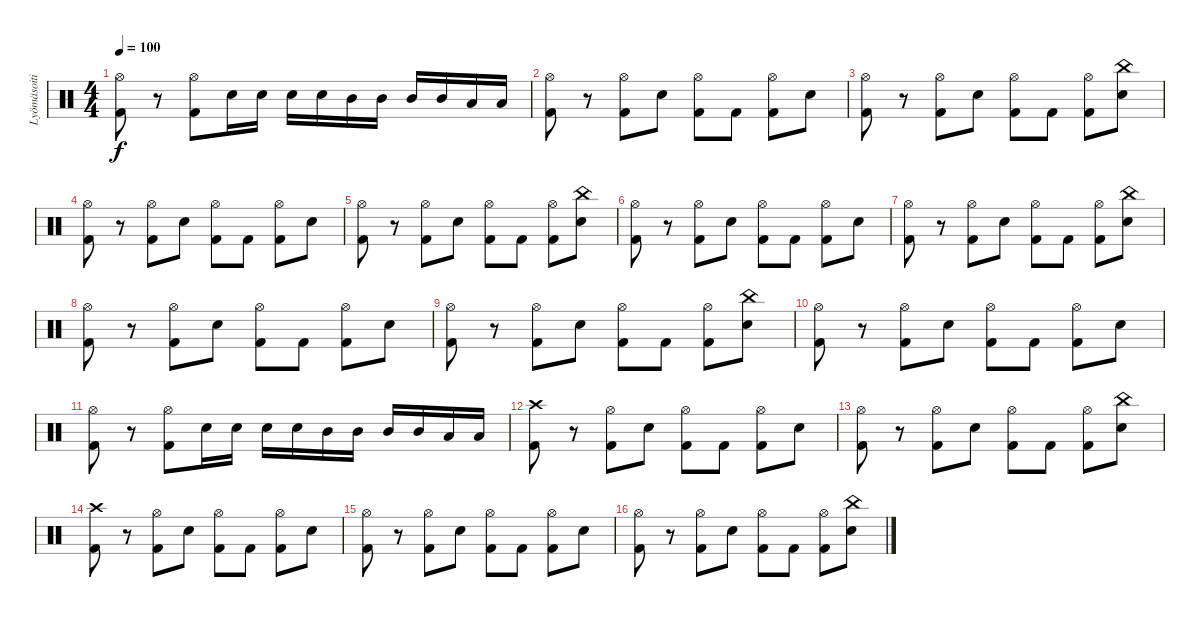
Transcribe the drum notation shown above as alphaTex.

\track ("Lyömäsoitin" "Lyömäsoiti") {instrument percussion}
\staff {score}
\articulation defaults
\ts (4 4)
\tempo 100
\clef neutral
\ks c
("Hi-Hat (open)" "Kick (hit) 2").8{dy f} r.8 ("Hi-Hat (open)" "Kick (hit) 2").8 "Snare (hit) 2".16 "Snare (hit) 2".16 "Snare (hit) 2".16 "Snare (hit) 2".16 "Mid Tom (hit)".16 "Mid Tom (hit)".16 "Mid Tom (hit)".16 "Mid Tom (hit)".16 "Low Tom (hit)".16 "Low Tom (hit)".16 |
("Hi-Hat (open)" "Kick (hit) 2").8 r.8 ("Hi-Hat (open)" "Kick (hit) 2").8 "Snare (hit) 2".8 ("Hi-Hat (open)" "Kick (hit) 2").8 "Kick (hit) 2".8 ("Hi-Hat (open)" "Kick (hit) 2").8 "Snare (hit) 2".8 |
("Hi-Hat (open)" "Kick (hit) 2").8 r.8 ("Hi-Hat (open)" "Kick (hit) 2").8 "Snare (hit) 2".8 ("Hi-Hat (open)" "Kick (hit) 2").8 "Kick (hit) 2".8 ("Hi-Hat (open)" "Kick (hit) 2").8 ("China (hit)" "Snare (hit) 2").8 |
("Hi-Hat (open)" "Kick (hit) 2").8 r.8 ("Hi-Hat (open)" "Kick (hit) 2").8 "Snare (hit) 2".8 ("Hi-Hat (open)" "Kick (hit) 2").8 "Kick (hit) 2".8 ("Hi-Hat (open)" "Kick (hit) 2").8 "Snare (hit) 2".8 |
("Hi-Hat (open)" "Kick (hit) 2").8 r.8 ("Hi-Hat (open)" "Kick (hit) 2").8 "Snare (hit) 2".8 ("Hi-Hat (open)" "Kick (hit) 2").8 "Kick (hit) 2".8 ("Hi-Hat (open)" "Kick (hit) 2").8 ("China (hit)" "Snare (hit) 2").8 |
("Hi-Hat (open)" "Kick (hit) 2").8 r.8 ("Hi-Hat (open)" "Kick (hit) 2").8 "Snare (hit) 2".8 ("Hi-Hat (open)" "Kick (hit) 2").8 "Kick (hit) 2".8 ("Hi-Hat (open)" "Kick (hit) 2").8 "Snare (hit) 2".8 |
("Hi-Hat (open)" "Kick (hit) 2").8 r.8 ("Hi-Hat (open)" "Kick (hit) 2").8 "Snare (hit) 2".8 ("Hi-Hat (open)" "Kick (hit) 2").8 "Kick (hit) 2".8 ("Hi-Hat (open)" "Kick (hit) 2").8 ("China (hit)" "Snare (hit) 2").8 |
("Hi-Hat (open)" "Kick (hit) 2").8 r.8 ("Hi-Hat (open)" "Kick (hit) 2").8 "Snare (hit) 2".8 ("Hi-Hat (open)" "Kick (hit) 2").8 "Kick (hit) 2".8 ("Hi-Hat (open)" "Kick (hit) 2").8 "Snare (hit) 2".8 |
("Hi-Hat (open)" "Kick (hit) 2").8 r.8 ("Hi-Hat (open)" "Kick (hit) 2").8 "Snare (hit) 2".8 ("Hi-Hat (open)" "Kick (hit) 2").8 "Kick (hit) 2".8 ("Hi-Hat (open)" "Kick (hit) 2").8 ("China (hit)" "Snare (hit) 2").8 |
("Hi-Hat (open)" "Kick (hit) 2").8 r.8 ("Hi-Hat (open)" "Kick (hit) 2").8 "Snare (hit) 2".8 ("Hi-Hat (open)" "Kick (hit) 2").8 "Kick (hit) 2".8 ("Hi-Hat (open)" "Kick (hit) 2").8 "Snare (hit) 2".8 |
("Hi-Hat (open)" "Kick (hit) 2").8 r.8 ("Hi-Hat (open)" "Kick (hit) 2").8 "Snare (hit) 2".16 "Snare (hit) 2".16 "Snare (hit) 2".16 "Snare (hit) 2".16 "Mid Tom (hit)".16 "Mid Tom (hit)".16 "Mid Tom (hit)".16 "Mid Tom (hit)".16 "Low Tom (hit)".16 "Low Tom (hit)".16 |
("Crash high (hit)" "Kick (hit) 2").8 r.8 ("Hi-Hat (open)" "Kick (hit) 2").8 "Snare (hit) 2".8 ("Hi-Hat (open)" "Kick (hit) 2").8 "Kick (hit) 2".8 ("Hi-Hat (open)" "Kick (hit) 2").8 "Snare (hit) 2".8 |
("Hi-Hat (open)" "Kick (hit) 2").8 r.8 ("Hi-Hat (open)" "Kick (hit) 2").8 "Snare (hit) 2".8 ("Hi-Hat (open)" "Kick (hit) 2").8 "Kick (hit) 2".8 ("Hi-Hat (open)" "Kick (hit) 2").8 ("China (hit)" "Snare (hit) 2").8 |
("Crash high (hit)" "Kick (hit) 2").8 r.8 ("Hi-Hat (open)" "Kick (hit) 2").8 "Snare (hit) 2".8 ("Hi-Hat (open)" "Kick (hit) 2").8 "Kick (hit) 2".8 ("Hi-Hat (open)" "Kick (hit) 2").8 "Snare (hit) 2".8 |
("Hi-Hat (open)" "Kick (hit) 2").8 r.8 ("Hi-Hat (open)" "Kick (hit) 2").8 "Snare (hit) 2".8 ("Hi-Hat (open)" "Kick (hit) 2").8 "Kick (hit) 2".8 ("Hi-Hat (open)" "Kick (hit) 2").8 "Snare (hit) 2".8 |
("Hi-Hat (open)" "Kick (hit) 2").8 r.8 ("Hi-Hat (open)" "Kick (hit) 2").8 "Snare (hit) 2".8 ("Hi-Hat (open)" "Kick (hit) 2").8 "Kick (hit) 2".8 ("Hi-Hat (open)" "Kick (hit) 2").8 ("China (hit)" "Snare (hit) 2").8
